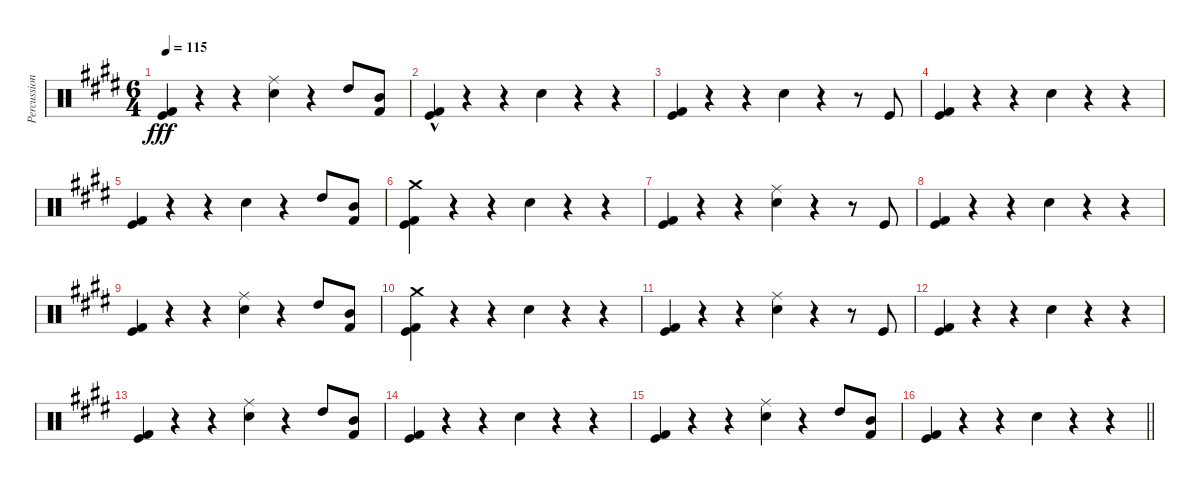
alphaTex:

\track ("Percussion" "Percussion") {instrument percussion}
\staff {score}
\articulation defaults
\ts (6 4)
\tempo 115
\clef neutral
\ks c#minor
("Kick (hit) 2" "Kick (hit)").4{dy fff} r.4 r.4 ("Ride (middle)" "Snare (hit) 2").4 r.4 "High Tom (hit)".8 ("Mid Tom (hit)" "Kick (hit) 2").8 |
("Kick (hit) 2"{hac} "Kick (hit)"{hac}).4 r.4 r.4 "Snare (hit) 2".4 r.4 r.4 |
("Kick (hit) 2" "Kick (hit)").4 r.4 r.4 "Snare (hit) 2".4 r.4 r.8 "Kick (hit)".8 |
("Kick (hit) 2" "Kick (hit)").4 r.4 r.4 "Snare (hit) 2".4 r.4 r.4 |
("Kick (hit) 2" "Kick (hit)").4 r.4 r.4 "Snare (hit) 2".4 r.4 "High Tom (hit)".8 ("Mid Tom (hit)" "Kick (hit) 2").8 |
("Crash medium (hit)" "Kick (hit) 2" "Kick (hit)").4 r.4 r.4 "Snare (hit) 2".4 r.4 r.4 |
("Kick (hit) 2" "Kick (hit)").4 r.4 r.4 ("Ride (middle)" "Snare (hit) 2").4 r.4 r.8 "Kick (hit)".8 |
("Kick (hit) 2" "Kick (hit)").4 r.4 r.4 "Snare (hit) 2".4 r.4 r.4 |
("Kick (hit) 2" "Kick (hit)").4 r.4 r.4 ("Ride (middle)" "Snare (hit) 2").4 r.4 "High Tom (hit)".8 ("Mid Tom (hit)" "Kick (hit) 2").8 |
("Crash medium (hit)" "Kick (hit) 2" "Kick (hit)").4 r.4 r.4 "Snare (hit) 2".4 r.4 r.4 |
("Kick (hit) 2" "Kick (hit)").4 r.4 r.4 ("Ride (middle)" "Snare (hit) 2").4 r.4 r.8 "Kick (hit)".8 |
("Kick (hit) 2" "Kick (hit)").4 r.4 r.4 "Snare (hit) 2".4 r.4 r.4 |
("Kick (hit) 2" "Kick (hit)").4 r.4 r.4 ("Ride (middle)" "Snare (hit) 2").4 r.4 "High Tom (hit)".8 ("Mid Tom (hit)" "Kick (hit) 2").8 |
("Kick (hit) 2" "Kick (hit)").4 r.4 r.4 "Snare (hit) 2".4 r.4 r.4 |
("Kick (hit) 2" "Kick (hit)").4 r.4 r.4 ("Ride (middle)" "Snare (hit) 2").4 r.4 "High Tom (hit)".8 ("Mid Tom (hit)" "Kick (hit) 2").8 |
\barLineRight lightlight
("Kick (hit) 2" "Kick (hit)").4 r.4 r.4 "Snare (hit) 2".4 r.4 r.4
